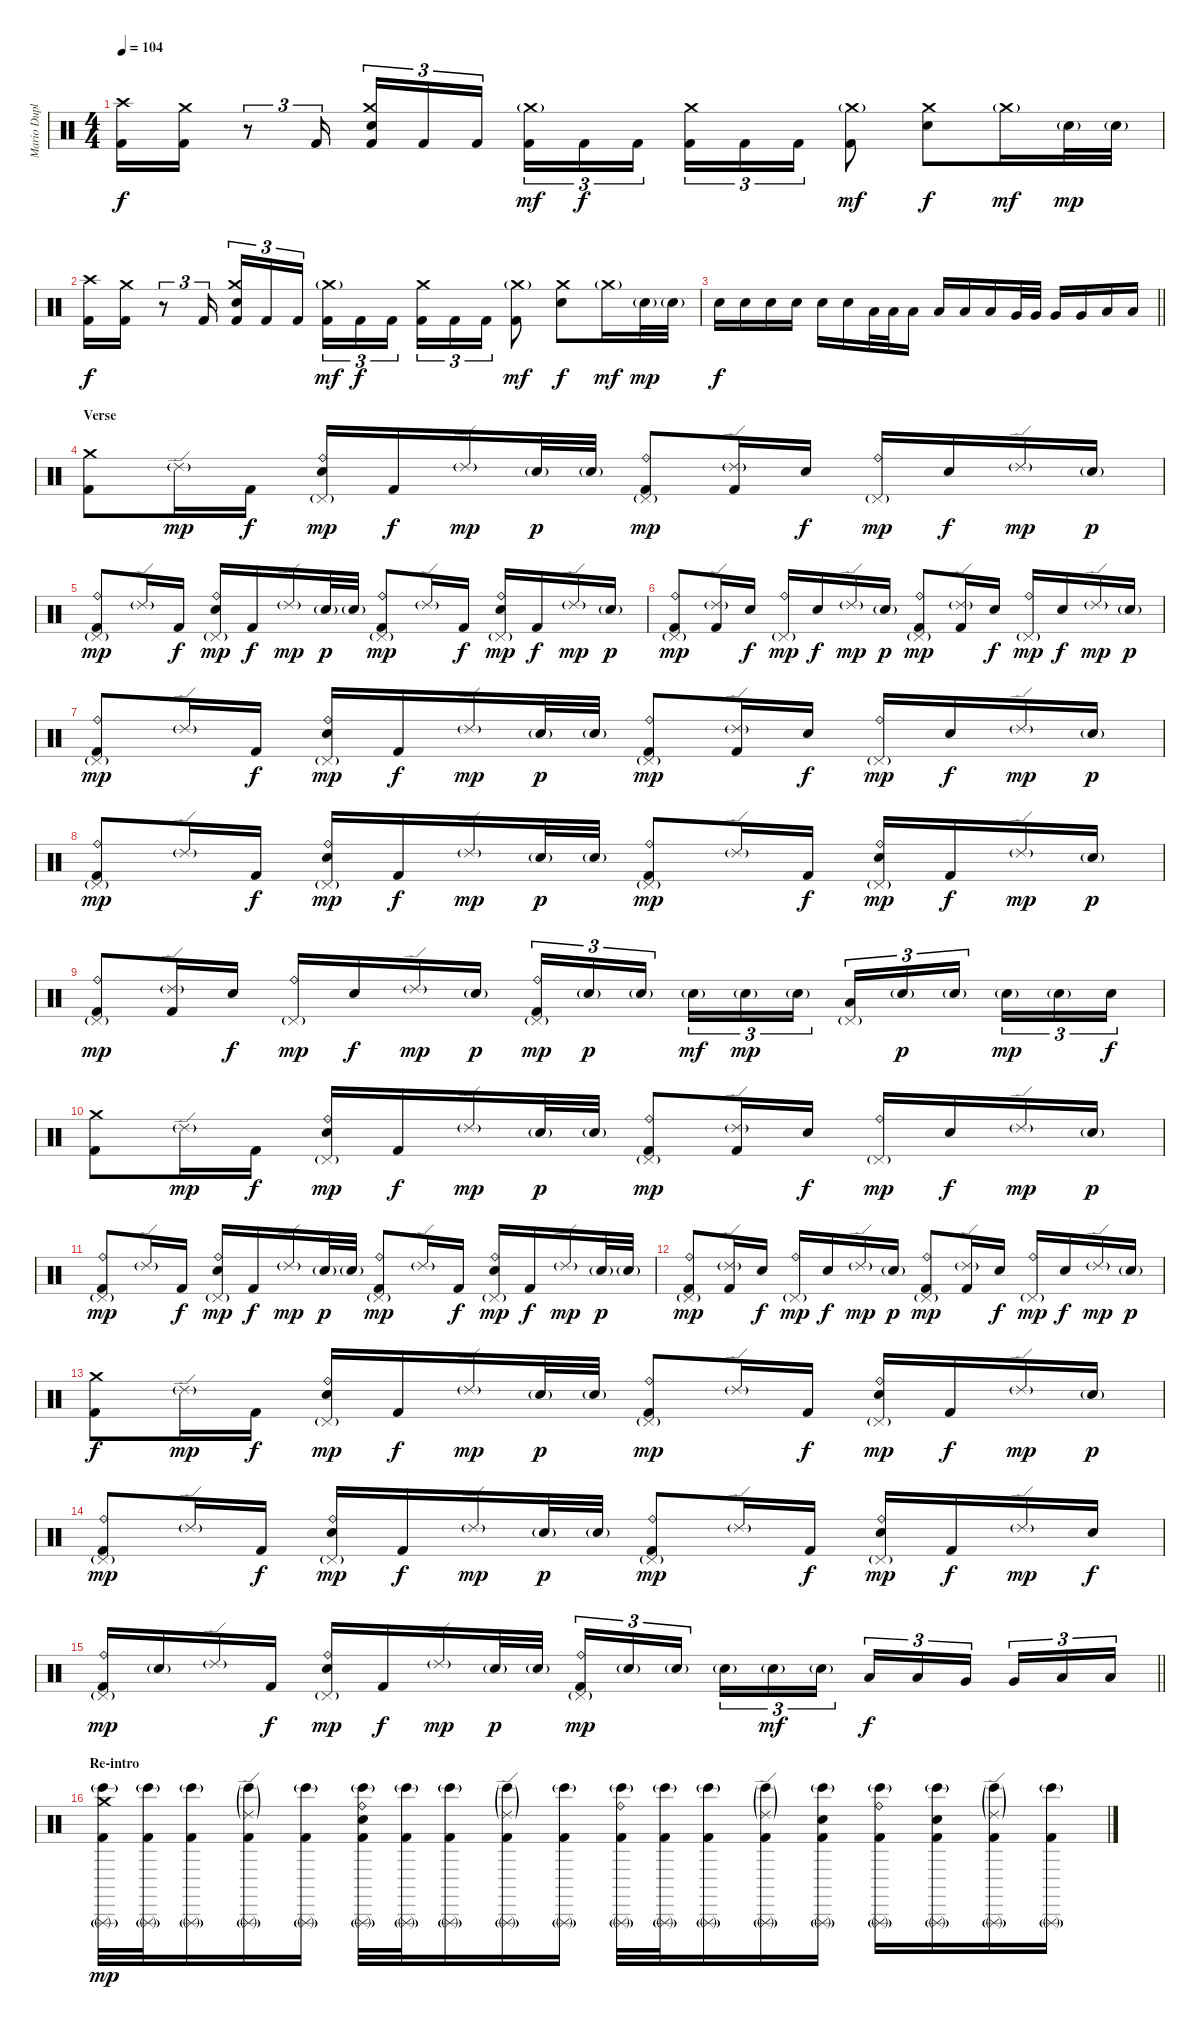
\track ("Mario Duplantier" "Mario Dupl") {instrument percussion}
\staff {score}
\articulation defaults
\ts (4 4)
\tempo 104
\clef neutral
\ks c
("Crash high (hit)" "Kick (hit) 2").16{dy f} ("Crash medium (hit)" "Kick (hit) 2").16 r.8{tu (3 2)} "Kick (hit) 2".16{tu (3 2)} ("Crash medium (hit)" "Electric Snare (hit)" "Kick (hit) 2").16{tu (3 2)} "Kick (hit) 2".16{tu (3 2)} "Kick (hit) 2".16{tu (3 2) beam splitsecondary} ("Crash medium (hit)"{g} "Kick (hit) 2").16{tu (3 2) dy mf} "Kick (hit) 2".16{tu (3 2) dy f} "Kick (hit) 2".16{tu (3 2)} ("Crash medium (hit)" "Kick (hit) 2").16{tu (3 2)} "Kick (hit) 2".16{tu (3 2)} "Kick (hit) 2".16{tu (3 2)} ("Crash medium (hit)"{g} "Kick (hit) 2").8{dy mf} ("Crash medium (hit)" "Electric Snare (hit)").8{dy f} "Crash medium (hit)"{g}.16{dy mf} "Electric Snare (hit)"{g}.32{dy mp} "Electric Snare (hit)"{g}.32 |
("Crash high (hit)" "Kick (hit) 2").16{dy f} ("Crash medium (hit)" "Kick (hit) 2").16 r.8{tu (3 2)} "Kick (hit) 2".16{tu (3 2)} ("Crash medium (hit)" "Electric Snare (hit)" "Kick (hit) 2").16{tu (3 2)} "Kick (hit) 2".16{tu (3 2)} "Kick (hit) 2".16{tu (3 2) beam splitsecondary} ("Crash medium (hit)"{g} "Kick (hit) 2").16{tu (3 2) dy mf} "Kick (hit) 2".16{tu (3 2) dy f} "Kick (hit) 2".16{tu (3 2)} ("Crash medium (hit)" "Kick (hit) 2").16{tu (3 2)} "Kick (hit) 2".16{tu (3 2)} "Kick (hit) 2".16{tu (3 2)} ("Crash medium (hit)"{g} "Kick (hit) 2").8{dy mf} ("Crash medium (hit)" "Electric Snare (hit)").8{dy f} "Crash medium (hit)"{g}.16{dy mf} "Electric Snare (hit)"{g}.32{dy mp} "Electric Snare (hit)"{g}.32 |
\barLineRight lightlight "Electric Snare (hit)".16{dy f} "Electric Snare (hit)".16 "Electric Snare (hit)".16 "Electric Snare (hit)".16 "Electric Snare (hit)".16 "Electric Snare (hit)".16 "Low Tom (hit)".32 "Low Tom (hit)".32 "Low Tom (hit)".16 "Low Tom (hit)".16 "Low Tom (hit)".16 "Low Tom (hit)".16 "Very Low Tom (hit)".32 "Very Low Tom (hit)".32 "Very Low Tom (hit)".16 "Very Low Tom (hit)".16 "Low Floor Tom (hit)".16 "Low Floor Tom (hit)".16
|
\section ("" "Verse")
("Crash medium (hit)" "Kick (hit) 2").8 "Ride (edge) 2"{g}.16{dy mp} "Kick (hit) 2".16{dy f} ("Ride (bell)" "Pedal Hi-Hat (hit)"{g} "Electric Snare (hit)").16{dy mp} "Kick (hit) 2".16{dy f} "Ride (edge) 2"{g}.16{dy mp} "Electric Snare (hit)"{g}.32{dy p} "Electric Snare (hit)"{g}.32 ("Ride (bell)" "Pedal Hi-Hat (hit)"{g} "Kick (hit) 2").8{dy mp} ("Ride (edge) 2"{g} "Kick (hit) 2").16 "Electric Snare (hit)".16{dy f} ("Ride (bell)" "Pedal Hi-Hat (hit)"{g}).16{dy mp} "Electric Snare (hit)".16{dy f} "Ride (edge) 2"{g}.16{dy mp} "Electric Snare (hit)"{g}.16{dy p} |
("Ride (bell)" "Pedal Hi-Hat (hit)"{g} "Kick (hit) 2").8{dy mp} "Ride (edge) 2"{g}.16 "Kick (hit) 2".16{dy f} ("Ride (bell)" "Pedal Hi-Hat (hit)"{g} "Electric Snare (hit)").16{dy mp} "Kick (hit) 2".16{dy f} "Ride (edge) 2"{g}.16{dy mp} "Electric Snare (hit)"{g}.32{dy p} "Electric Snare (hit)"{g}.32 ("Ride (bell)" "Pedal Hi-Hat (hit)"{g} "Kick (hit) 2").8{dy mp} "Ride (edge) 2"{g}.16 "Kick (hit) 2".16{dy f} ("Ride (bell)" "Pedal Hi-Hat (hit)"{g} "Electric Snare (hit)").16{dy mp} "Kick (hit) 2".16{dy f} "Ride (edge) 2"{g}.16{dy mp} "Electric Snare (hit)"{g}.16{dy p} |
("Ride (bell)" "Pedal Hi-Hat (hit)"{g} "Kick (hit) 2").8{dy mp} ("Ride (edge) 2"{g} "Kick (hit) 2").16 "Electric Snare (hit)".16{dy f} ("Ride (bell)" "Pedal Hi-Hat (hit)"{g}).16{dy mp} "Electric Snare (hit)".16{dy f} "Ride (edge) 2"{g}.16{dy mp} "Electric Snare (hit)"{g}.16{dy p} ("Ride (bell)" "Pedal Hi-Hat (hit)"{g} "Kick (hit) 2").8{dy mp} ("Ride (edge) 2"{g} "Kick (hit) 2").16 "Electric Snare (hit)".16{dy f} ("Ride (bell)" "Pedal Hi-Hat (hit)"{g}).16{dy mp} "Electric Snare (hit)".16{dy f} "Ride (edge) 2"{g}.16{dy mp} "Electric Snare (hit)"{g}.16{dy p} |
("Ride (bell)" "Pedal Hi-Hat (hit)"{g} "Kick (hit) 2").8{dy mp} "Ride (edge) 2"{g}.16 "Kick (hit) 2".16{dy f} ("Ride (bell)" "Pedal Hi-Hat (hit)"{g} "Electric Snare (hit)").16{dy mp} "Kick (hit) 2".16{dy f} "Ride (edge) 2"{g}.16{dy mp} "Electric Snare (hit)"{g}.32{dy p} "Electric Snare (hit)"{g}.32 ("Ride (bell)" "Pedal Hi-Hat (hit)"{g} "Kick (hit) 2").8{dy mp} ("Ride (edge) 2"{g} "Kick (hit) 2").16 "Electric Snare (hit)".16{dy f} ("Ride (bell)" "Pedal Hi-Hat (hit)"{g}).16{dy mp} "Electric Snare (hit)".16{dy f} "Ride (edge) 2"{g}.16{dy mp} "Electric Snare (hit)"{g}.16{dy p} |
("Ride (bell)" "Pedal Hi-Hat (hit)"{g} "Kick (hit) 2").8{dy mp} "Ride (edge) 2"{g}.16 "Kick (hit) 2".16{dy f} ("Ride (bell)" "Pedal Hi-Hat (hit)"{g} "Electric Snare (hit)").16{dy mp} "Kick (hit) 2".16{dy f} "Ride (edge) 2"{g}.16{dy mp} "Electric Snare (hit)"{g}.32{dy p} "Electric Snare (hit)"{g}.32 ("Ride (bell)" "Pedal Hi-Hat (hit)"{g} "Kick (hit) 2").8{dy mp} "Ride (edge) 2"{g}.16 "Kick (hit) 2".16{dy f} ("Ride (bell)" "Pedal Hi-Hat (hit)"{g} "Electric Snare (hit)").16{dy mp} "Kick (hit) 2".16{dy f} "Ride (edge) 2"{g}.16{dy mp} "Electric Snare (hit)"{g}.16{dy p} |
("Ride (bell)" "Pedal Hi-Hat (hit)"{g} "Kick (hit) 2").8{dy mp} ("Ride (edge) 2"{g} "Kick (hit) 2").16 "Electric Snare (hit)".16{dy f} ("Ride (bell)" "Pedal Hi-Hat (hit)"{g}).16{dy mp} "Electric Snare (hit)".16{dy f} "Ride (edge) 2"{g}.16{dy mp} "Electric Snare (hit)"{g}.16{dy p} ("Ride (bell)" "Pedal Hi-Hat (hit)"{g} "Kick (hit) 2").16{tu (3 2) dy mp} "Electric Snare (hit)"{g}.16{tu (3 2) dy p} "Electric Snare (hit)"{g}.16{tu (3 2) beam splitsecondary} "Electric Snare (hit)"{g}.16{tu (3 2) dy mf} "Electric Snare (hit)"{g}.16{tu (3 2) dy mp} "Electric Snare (hit)"{g}.16{tu (3 2)} ("Pedal Hi-Hat (hit)"{g} "Low Tom (hit)").16{tu (3 2)} "Electric Snare (hit)"{g}.16{tu (3 2) dy p} "Electric Snare (hit)"{g}.16{tu (3 2) beam splitsecondary} "Electric Snare (hit)"{g}.16{tu (3 2) dy mp} "Electric Snare (hit)"{g}.16{tu (3 2)} "Electric Snare (hit)".16{tu (3 2) dy f} |
("Crash medium (hit)" "Kick (hit) 2").8 "Ride (edge) 2"{g}.16{dy mp} "Kick (hit) 2".16{dy f} ("Ride (bell)" "Pedal Hi-Hat (hit)"{g} "Electric Snare (hit)").16{dy mp} "Kick (hit) 2".16{dy f} "Ride (edge) 2"{g}.16{dy mp} "Electric Snare (hit)"{g}.32{dy p} "Electric Snare (hit)"{g}.32 ("Ride (bell)" "Pedal Hi-Hat (hit)"{g} "Kick (hit) 2").8{dy mp} ("Ride (edge) 2"{g} "Kick (hit) 2").16 "Electric Snare (hit)".16{dy f} ("Ride (bell)" "Pedal Hi-Hat (hit)"{g}).16{dy mp} "Electric Snare (hit)".16{dy f} "Ride (edge) 2"{g}.16{dy mp} "Electric Snare (hit)"{g}.16{dy p} |
("Ride (bell)" "Pedal Hi-Hat (hit)"{g} "Kick (hit) 2").8{dy mp} "Ride (edge) 2"{g}.16 "Kick (hit) 2".16{dy f} ("Ride (bell)" "Pedal Hi-Hat (hit)"{g} "Electric Snare (hit)").16{dy mp} "Kick (hit) 2".16{dy f} "Ride (edge) 2"{g}.16{dy mp} "Electric Snare (hit)"{g}.32{dy p} "Electric Snare (hit)"{g}.32 ("Ride (bell)" "Pedal Hi-Hat (hit)"{g} "Kick (hit) 2").8{dy mp} "Ride (edge) 2"{g}.16 "Kick (hit) 2".16{dy f} ("Ride (bell)" "Pedal Hi-Hat (hit)"{g} "Electric Snare (hit)").16{dy mp} "Kick (hit) 2".16{dy f} "Ride (edge) 2"{g}.16{dy mp} "Electric Snare (hit)"{g}.32{dy p} "Electric Snare (hit)"{g}.32 |
("Ride (bell)" "Pedal Hi-Hat (hit)"{g} "Kick (hit) 2").8{dy mp} ("Ride (edge) 2"{g} "Kick (hit) 2").16 "Electric Snare (hit)".16{dy f} ("Ride (bell)" "Pedal Hi-Hat (hit)"{g}).16{dy mp} "Electric Snare (hit)".16{dy f} "Ride (edge) 2"{g}.16{dy mp} "Electric Snare (hit)"{g}.16{dy p} ("Ride (bell)" "Pedal Hi-Hat (hit)"{g} "Kick (hit) 2").8{dy mp} ("Ride (edge) 2"{g} "Kick (hit) 2").16 "Electric Snare (hit)".16{dy f} ("Ride (bell)" "Pedal Hi-Hat (hit)"{g}).16{dy mp} "Electric Snare (hit)".16{dy f} "Ride (edge) 2"{g}.16{dy mp} "Electric Snare (hit)"{g}.16{dy p} |
("Crash medium (hit)" "Kick (hit) 2").8{dy f} "Ride (edge) 2"{g}.16{dy mp} "Kick (hit) 2".16{dy f} ("Ride (bell)" "Pedal Hi-Hat (hit)"{g} "Electric Snare (hit)").16{dy mp} "Kick (hit) 2".16{dy f} "Ride (edge) 2"{g}.16{dy mp} "Electric Snare (hit)"{g}.32{dy p} "Electric Snare (hit)"{g}.32 ("Ride (bell)" "Pedal Hi-Hat (hit)"{g} "Kick (hit) 2").8{dy mp} "Ride (edge) 2"{g}.16 "Kick (hit) 2".16{dy f} ("Ride (bell)" "Pedal Hi-Hat (hit)"{g} "Electric Snare (hit)").16{dy mp} "Kick (hit) 2".16{dy f} "Ride (edge) 2"{g}.16{dy mp} "Electric Snare (hit)"{g}.16{dy p} |
("Ride (bell)" "Pedal Hi-Hat (hit)"{g} "Kick (hit) 2").8{dy mp} "Ride (edge) 2"{g}.16 "Kick (hit) 2".16{dy f} ("Ride (bell)" "Pedal Hi-Hat (hit)"{g} "Electric Snare (hit)").16{dy mp} "Kick (hit) 2".16{dy f} "Ride (edge) 2"{g}.16{dy mp} "Electric Snare (hit)"{g}.32{dy p} "Electric Snare (hit)"{g}.32 ("Ride (bell)" "Pedal Hi-Hat (hit)"{g} "Kick (hit) 2").8{dy mp} "Ride (edge) 2"{g}.16 "Kick (hit) 2".16{dy f} ("Ride (bell)" "Pedal Hi-Hat (hit)"{g} "Electric Snare (hit)").16{dy mp} "Kick (hit) 2".16{dy f} "Ride (edge) 2"{g}.16{dy mp} "Electric Snare (hit)".16{dy f} |
\barLineRight lightlight
("Ride (bell)" "Pedal Hi-Hat (hit)"{g} "Kick (hit) 2").16{dy mp} "Electric Snare (hit)"{g}.16 "Ride (edge) 2"{g}.16 "Kick (hit) 2".16{dy f} ("Ride (bell)" "Pedal Hi-Hat (hit)"{g} "Electric Snare (hit)").16{dy mp} "Kick (hit) 2".16{dy f} "Ride (edge) 2"{g}.16{dy mp} "Electric Snare (hit)"{g}.32{dy p} "Electric Snare (hit)"{g}.32 ("Ride (bell)" "Pedal Hi-Hat (hit)"{g} "Kick (hit) 2").16{tu (3 2) dy mp} "Electric Snare (hit)"{g}.16{tu (3 2)} "Electric Snare (hit)"{g}.16{tu (3 2) beam splitsecondary} "Electric Snare (hit)"{g}.16{tu (3 2)} "Electric Snare (hit)"{g}.16{tu (3 2) dy mf} "Electric Snare (hit)"{g}.16{tu (3 2)} "Low Tom (hit)".16{tu (3 2) dy f} "Low Tom (hit)".16{tu (3 2)} "Very Low Tom (hit)".16{tu (3 2) beam splitsecondary} "Very Low Tom (hit)".16{tu (3 2)} "Low Floor Tom (hit)".16{tu (3 2)} "Low Floor Tom (hit)".16{tu (3 2)} |
\section ("" "Re-intro")
("Triangle (rnute)"{g} "Bongo High (hit)"{g} "Crash medium (hit)" "Kick (hit) 2").32{dy mp} ("Triangle (rnute)"{g} "Bongo High (hit)"{g} "Kick (hit) 2").32 ("Triangle (rnute)"{g} "Bongo High (hit)"{g} "Kick (hit) 2").16 ("Triangle (rnute)"{g} "Bongo High (hit)"{g} "Ride (edge) 2"{g} "Kick (hit) 2").16 ("Triangle (rnute)"{g} "Bongo High (hit)"{g} "Kick (hit) 2").16 ("Triangle (rnute)"{g} "Bongo High (hit)"{g} "Ride (bell)" "Electric Snare (hit)" "Kick (hit) 2").32 ("Triangle (rnute)"{g} "Bongo High (hit)"{g} "Kick (hit) 2").32 ("Triangle (rnute)"{g} "Bongo High (hit)"{g} "Kick (hit) 2").16 ("Triangle (rnute)"{g} "Bongo High (hit)"{g} "Ride (edge) 2"{g} "Kick (hit) 2").16 ("Triangle (rnute)"{g} "Bongo High (hit)"{g} "Kick (hit) 2").16 ("Triangle (rnute)"{g} "Bongo High (hit)"{g} "Ride (bell)" "Kick (hit) 2").32 ("Triangle (rnute)"{g} "Bongo High (hit)"{g} "Kick (hit) 2").32 ("Triangle (rnute)"{g} "Bongo High (hit)"{g} "Kick (hit) 2").16 ("Triangle (rnute)"{g} "Bongo High (hit)"{g} "Ride (edge) 2"{g} "Kick (hit) 2").16 ("Triangle (rnute)"{g} "Bongo High (hit)"{g} "Electric Snare (hit)" "Kick (hit) 2").16 ("Triangle (rnute)"{g} "Bongo High (hit)"{g} "Ride (bell)" "Kick (hit) 2").16 ("Triangle (rnute)"{g} "Bongo High (hit)"{g} "Electric Snare (hit)" "Kick (hit) 2").16 ("Triangle (rnute)"{g} "Bongo High (hit)"{g} "Ride (edge) 2"{g} "Kick (hit) 2").16 ("Triangle (rnute)"{g} "Bongo High (hit)"{g} "Kick (hit) 2").16
